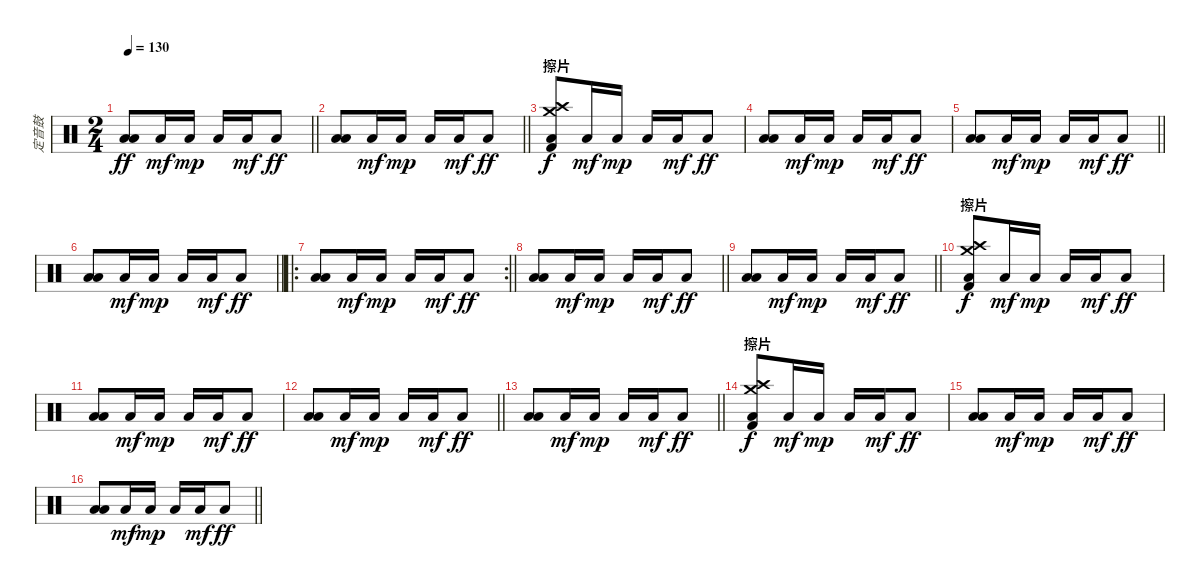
\track ("定音鼓" "定音鼓") {instrument percussion}
\staff {score}
\articulation defaults
\ts (2 4)
\tempo 130
\clef neutral
\barLineRight lightlight
\ks c
("Low Floor Tom (hit)" "Low Floor Tom (hit)").8{dy ff} "Low Floor Tom (hit)".16{dy mf} "Low Floor Tom (hit)".16{dy mp} "Low Floor Tom (hit)".16 "Low Floor Tom (hit)".16{dy mf} "Low Floor Tom (hit)".8{dy ff} |
\barLineRight lightlight
("Low Floor Tom (hit)" "Low Floor Tom (hit)").8 "Low Floor Tom (hit)".16{dy mf} "Low Floor Tom (hit)".16{dy mp} "Low Floor Tom (hit)".16 "Low Floor Tom (hit)".16{dy mf} "Low Floor Tom (hit)".8{dy ff} |
\section ("" "擦片")
("Crash high (hit)" "Crash medium (hit)" "Kick (hit) 2" "Low Floor Tom (hit)").8{dy f} "Low Floor Tom (hit)".16{dy mf} "Low Floor Tom (hit)".16{dy mp} "Low Floor Tom (hit)".16 "Low Floor Tom (hit)".16{dy mf} "Low Floor Tom (hit)".8{dy ff} |
("Low Floor Tom (hit)" "Low Floor Tom (hit)").8 "Low Floor Tom (hit)".16{dy mf} "Low Floor Tom (hit)".16{dy mp} "Low Floor Tom (hit)".16 "Low Floor Tom (hit)".16{dy mf} "Low Floor Tom (hit)".8{dy ff} |
\barLineRight lightlight
("Low Floor Tom (hit)" "Low Floor Tom (hit)").8 "Low Floor Tom (hit)".16{dy mf} "Low Floor Tom (hit)".16{dy mp} "Low Floor Tom (hit)".16 "Low Floor Tom (hit)".16{dy mf} "Low Floor Tom (hit)".8{dy ff} |
\barLineRight lightlight
("Low Floor Tom (hit)" "Low Floor Tom (hit)").8 "Low Floor Tom (hit)".16{dy mf} "Low Floor Tom (hit)".16{dy mp} "Low Floor Tom (hit)".16 "Low Floor Tom (hit)".16{dy mf} "Low Floor Tom (hit)".8{dy ff} |
\ro
\rc 2
\barLineRight lightlight
("Low Floor Tom (hit)" "Low Floor Tom (hit)").8 "Low Floor Tom (hit)".16{dy mf} "Low Floor Tom (hit)".16{dy mp} "Low Floor Tom (hit)".16 "Low Floor Tom (hit)".16{dy mf} "Low Floor Tom (hit)".8{dy ff} |
\barLineRight lightlight
("Low Floor Tom (hit)" "Low Floor Tom (hit)").8 "Low Floor Tom (hit)".16{dy mf} "Low Floor Tom (hit)".16{dy mp} "Low Floor Tom (hit)".16 "Low Floor Tom (hit)".16{dy mf} "Low Floor Tom (hit)".8{dy ff} |
\barLineRight lightlight
("Low Floor Tom (hit)" "Low Floor Tom (hit)").8 "Low Floor Tom (hit)".16{dy mf} "Low Floor Tom (hit)".16{dy mp} "Low Floor Tom (hit)".16 "Low Floor Tom (hit)".16{dy mf} "Low Floor Tom (hit)".8{dy ff} |
\section ("" "擦片")
("Crash high (hit)" "Crash medium (hit)" "Kick (hit) 2" "Low Floor Tom (hit)").8{dy f} "Low Floor Tom (hit)".16{dy mf} "Low Floor Tom (hit)".16{dy mp} "Low Floor Tom (hit)".16 "Low Floor Tom (hit)".16{dy mf} "Low Floor Tom (hit)".8{dy ff} |
("Low Floor Tom (hit)" "Low Floor Tom (hit)").8 "Low Floor Tom (hit)".16{dy mf} "Low Floor Tom (hit)".16{dy mp} "Low Floor Tom (hit)".16 "Low Floor Tom (hit)".16{dy mf} "Low Floor Tom (hit)".8{dy ff} |
\barLineRight lightlight
("Low Floor Tom (hit)" "Low Floor Tom (hit)").8 "Low Floor Tom (hit)".16{dy mf} "Low Floor Tom (hit)".16{dy mp} "Low Floor Tom (hit)".16 "Low Floor Tom (hit)".16{dy mf} "Low Floor Tom (hit)".8{dy ff} |
\barLineRight lightlight
("Low Floor Tom (hit)" "Low Floor Tom (hit)").8 "Low Floor Tom (hit)".16{dy mf} "Low Floor Tom (hit)".16{dy mp} "Low Floor Tom (hit)".16 "Low Floor Tom (hit)".16{dy mf} "Low Floor Tom (hit)".8{dy ff} |
\section ("" "擦片")
("Crash high (hit)" "Crash medium (hit)" "Kick (hit) 2" "Low Floor Tom (hit)").8{dy f} "Low Floor Tom (hit)".16{dy mf} "Low Floor Tom (hit)".16{dy mp} "Low Floor Tom (hit)".16 "Low Floor Tom (hit)".16{dy mf} "Low Floor Tom (hit)".8{dy ff} |
("Low Floor Tom (hit)" "Low Floor Tom (hit)").8 "Low Floor Tom (hit)".16{dy mf} "Low Floor Tom (hit)".16{dy mp} "Low Floor Tom (hit)".16 "Low Floor Tom (hit)".16{dy mf} "Low Floor Tom (hit)".8{dy ff} |
\barLineRight lightlight
("Low Floor Tom (hit)" "Low Floor Tom (hit)").8 "Low Floor Tom (hit)".16{dy mf} "Low Floor Tom (hit)".16{dy mp} "Low Floor Tom (hit)".16 "Low Floor Tom (hit)".16{dy mf} "Low Floor Tom (hit)".8{dy ff}
